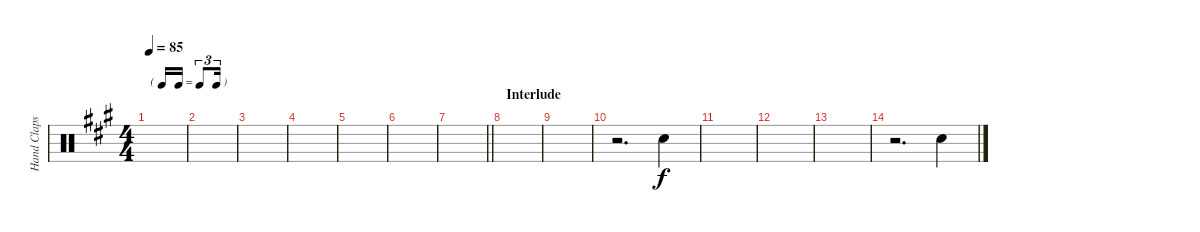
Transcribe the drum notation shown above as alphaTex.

\track ("Hand Claps" "Hand Claps") {instrument percussion}
\staff {score}
\articulation defaults
\ts (4 4)
\tf triplet16th
\tempo 85
\clef neutral
\ks a
|
|
|
|
|
|
\barLineRight lightlight
|
\section ("" "Interlude")
|
|
r.2{d} "Hand Clap (hit)".4 |
|
|
|
r.2{d} "Hand Clap (hit)".4
